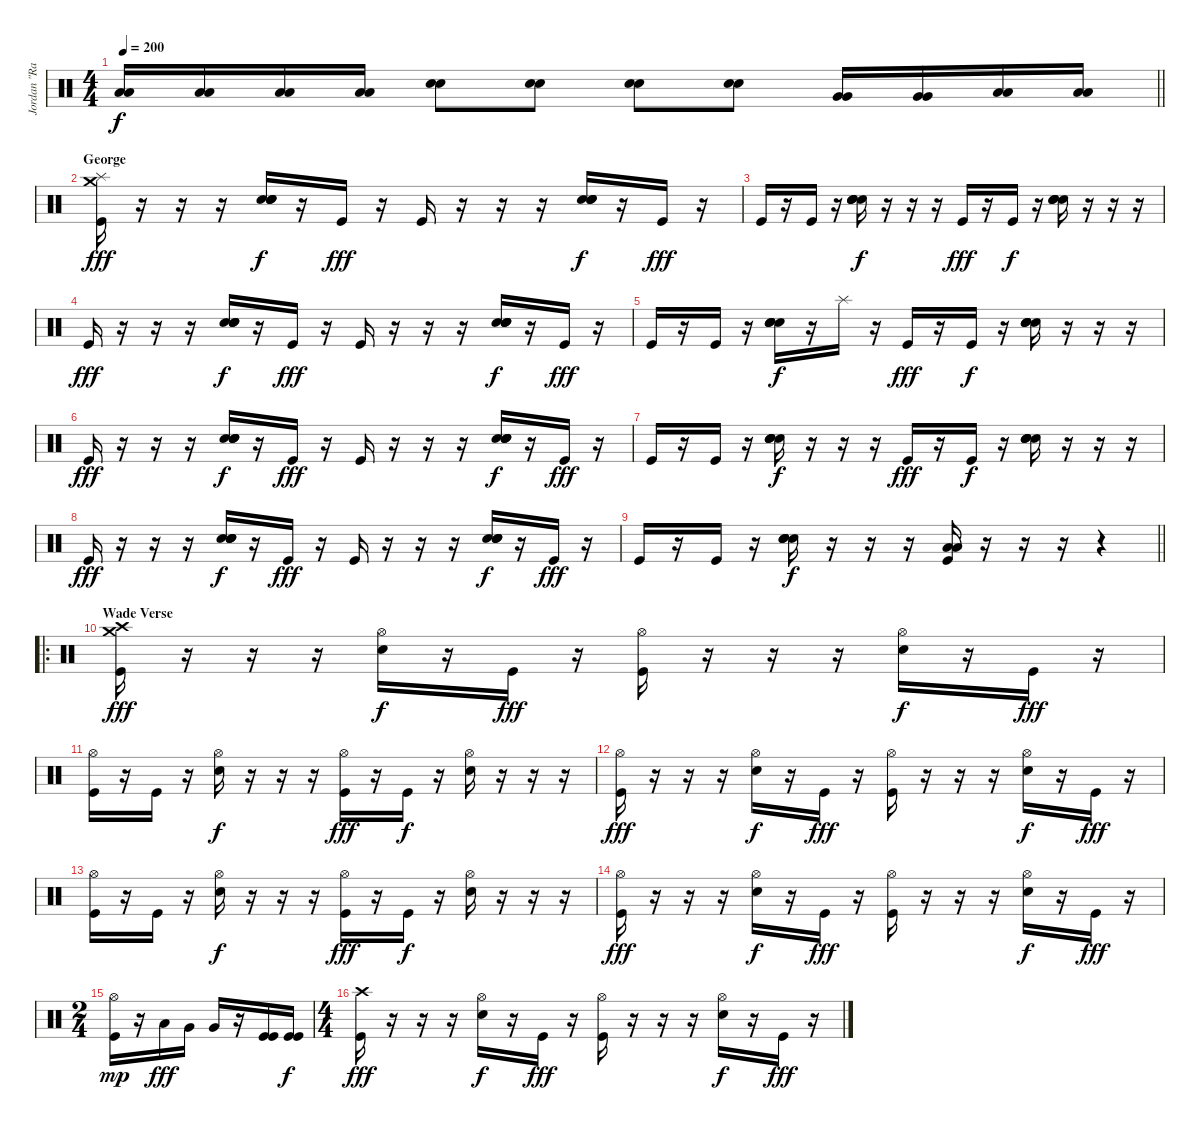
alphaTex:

\track ("Jordan \"Ratbeard\" Hastings" "Jordan \"Ra") {instrument percussion}
\staff {score}
\articulation defaults
\ts (4 4)
\tempo 200
\clef neutral
\barLineRight lightlight
\ks c
("Low Tom (hit)" "Low Tom (hit)").16{dy f} ("Low Tom (hit)" "Low Tom (hit)").16 ("Low Floor Tom (hit)" "Low Floor Tom (hit)").16 ("Low Floor Tom (hit)" "Low Floor Tom (hit)").16 ("Electric Snare (hit)" "Electric Snare (hit)").8 ("Electric Snare (hit)" "Electric Snare (hit)").8 ("Electric Snare (hit)" "Electric Snare (hit)").8 ("Electric Snare (hit)" "Electric Snare (hit)").8 ("Very Low Tom (hit)" "Very Low Tom (hit)").16 ("Very Low Tom (hit)" "Very Low Tom (hit)").16 ("Low Tom (hit)" "Low Tom (hit)").16 ("Low Tom (hit)" "Low Tom (hit)").16 |
\section ("" "George")
("Crash medium (hit)" "Splash (hit)" "Kick (hit)").16{dy fff} r.16 r.16 r.16 ("Snare (hit) 2" "Electric Snare (hit)" "Electric Snare (hit)" "Snare (hit) 2").16{dy f} r.16 "Kick (hit)".16{dy fff} r.16 "Kick (hit)".16 r.16 r.16 r.16 ("Snare (hit) 2" "Electric Snare (hit)" "Electric Snare (hit)" "Snare (hit) 2").16{dy f} r.16 "Kick (hit)".16{dy fff} r.16 |
"Kick (hit)".16 r.16 "Kick (hit)".16 r.16 ("Snare (hit) 2" "Snare (hit) 2" "Electric Snare (hit)" "Electric Snare (hit)").16{dy f} r.16 r.16 r.16 "Kick (hit)".16{dy fff} r.16 "Kick (hit)".16{dy f} r.16 ("Snare (hit) 2" "Electric Snare (hit)" "Electric Snare (hit)" "Snare (hit) 2").16 r.16 r.16 r.16 |
"Kick (hit)".16{dy fff} r.16 r.16 r.16 ("Snare (hit) 2" "Electric Snare (hit)" "Electric Snare (hit)" "Snare (hit) 2").16{dy f} r.16 "Kick (hit)".16{dy fff} r.16 "Kick (hit)".16 r.16 r.16 r.16 ("Snare (hit) 2" "Electric Snare (hit)" "Electric Snare (hit)" "Snare (hit) 2").16{dy f} r.16 "Kick (hit)".16{dy fff} r.16 |
"Kick (hit)".16 r.16 "Kick (hit)".16 r.16 ("Snare (hit) 2" "Snare (hit) 2" "Electric Snare (hit)" "Electric Snare (hit)").16{dy f} r.16 "Splash (hit)".16 r.16 "Kick (hit)".16{dy fff} r.16 "Kick (hit)".16{dy f} r.16 ("Snare (hit) 2" "Electric Snare (hit)" "Electric Snare (hit)" "Snare (hit) 2").16 r.16 r.16 r.16 |
"Kick (hit)".16{dy fff} r.16 r.16 r.16 ("Snare (hit) 2" "Electric Snare (hit)" "Electric Snare (hit)" "Snare (hit) 2").16{dy f} r.16 "Kick (hit)".16{dy fff} r.16 "Kick (hit)".16 r.16 r.16 r.16 ("Snare (hit) 2" "Electric Snare (hit)" "Electric Snare (hit)" "Snare (hit) 2").16{dy f} r.16 "Kick (hit)".16{dy fff} r.16 |
"Kick (hit)".16 r.16 "Kick (hit)".16 r.16 ("Snare (hit) 2" "Snare (hit) 2" "Electric Snare (hit)" "Electric Snare (hit)").16{dy f} r.16 r.16 r.16 "Kick (hit)".16{dy fff} r.16 "Kick (hit)".16{dy f} r.16 ("Snare (hit) 2" "Electric Snare (hit)" "Electric Snare (hit)" "Snare (hit) 2").16 r.16 r.16 r.16 |
"Kick (hit)".16{dy fff} r.16 r.16 r.16 ("Snare (hit) 2" "Electric Snare (hit)" "Electric Snare (hit)" "Snare (hit) 2").16{dy f} r.16 "Kick (hit)".16{dy fff} r.16 "Kick (hit)".16 r.16 r.16 r.16 ("Snare (hit) 2" "Electric Snare (hit)" "Electric Snare (hit)" "Snare (hit) 2").16{dy f} r.16 "Kick (hit)".16{dy fff} r.16 |
\barLineRight lightlight "Kick (hit)".16
r.16 "Kick (hit)".16 r.16 ("Snare (hit) 2" "Snare (hit) 2" "Electric Snare (hit)" "Electric Snare (hit)").16{dy f} r.16 r.16 r.16 ("Low Tom (hit)" "Low Tom (hit)" "Kick (hit)").16 r.16 r.16 r.16 r.4 |
\ro
\section ("" "Wade Verse")
("Crash medium (hit)" "Crash high (hit)" "Kick (hit)").16{dy fff} r.16 r.16 r.16 ("Hi-Hat (open)" "Electric Snare (hit)").16{dy f} r.16 "Kick (hit)".16{dy fff} r.16 ("Hi-Hat (open)" "Kick (hit)").16 r.16 r.16 r.16 ("Hi-Hat (open)" "Electric Snare (hit)").16{dy f} r.16 "Kick (hit)".16{dy fff} r.16 |
("Hi-Hat (open)" "Kick (hit)").16 r.16 "Kick (hit)".16 r.16 ("Hi-Hat (open)" "Electric Snare (hit)").16{dy f} r.16 r.16 r.16 ("Hi-Hat (open)" "Kick (hit)").16{dy fff} r.16 "Kick (hit)".16{dy f} r.16 ("Hi-Hat (open)" "Electric Snare (hit)").16 r.16 r.16 r.16 |
("Hi-Hat (open)" "Kick (hit)").16{dy fff} r.16 r.16 r.16 ("Hi-Hat (open)" "Electric Snare (hit)").16{dy f} r.16 "Kick (hit)".16{dy fff} r.16 ("Hi-Hat (open)" "Kick (hit)").16 r.16 r.16 r.16 ("Hi-Hat (open)" "Electric Snare (hit)").16{dy f} r.16 "Kick (hit)".16{dy fff} r.16 |
("Hi-Hat (open)" "Kick (hit)").16 r.16 "Kick (hit)".16 r.16 ("Hi-Hat (open)" "Electric Snare (hit)").16{dy f} r.16 r.16 r.16 ("Hi-Hat (open)" "Kick (hit)").16{dy fff} r.16 "Kick (hit)".16{dy f} r.16 ("Hi-Hat (open)" "Electric Snare (hit)").16 r.16 r.16 r.16 |
("Hi-Hat (open)" "Kick (hit)").16{dy fff} r.16 r.16 r.16 ("Hi-Hat (open)" "Electric Snare (hit)").16{dy f} r.16 "Kick (hit)".16{dy fff} r.16 ("Hi-Hat (open)" "Kick (hit)").16 r.16 r.16 r.16 ("Hi-Hat (open)" "Electric Snare (hit)").16{dy f} r.16 "Kick (hit)".16{dy fff} r.16 |
\ts (2 4)
("Hi-Hat (open)" "Kick (hit)").16{dy mp} r.16 "Low Tom (hit)".16{dy fff} "Very Low Tom (hit)".16 "Very Low Tom (hit)".16 r.16 ("Kick (hit)" "Kick (hit)").16 ("Kick (hit)" "Kick (hit)").16{dy f} |
\ts (4 4)
("Crash high (hit)" "Kick (hit)").16{dy fff} r.16 r.16 r.16 ("Hi-Hat (open)" "Electric Snare (hit)").16{dy f} r.16 "Kick (hit)".16{dy fff} r.16 ("Hi-Hat (open)" "Kick (hit)").16 r.16 r.16 r.16 ("Hi-Hat (open)" "Electric Snare (hit)").16{dy f} r.16 "Kick (hit)".16{dy fff} r.16
